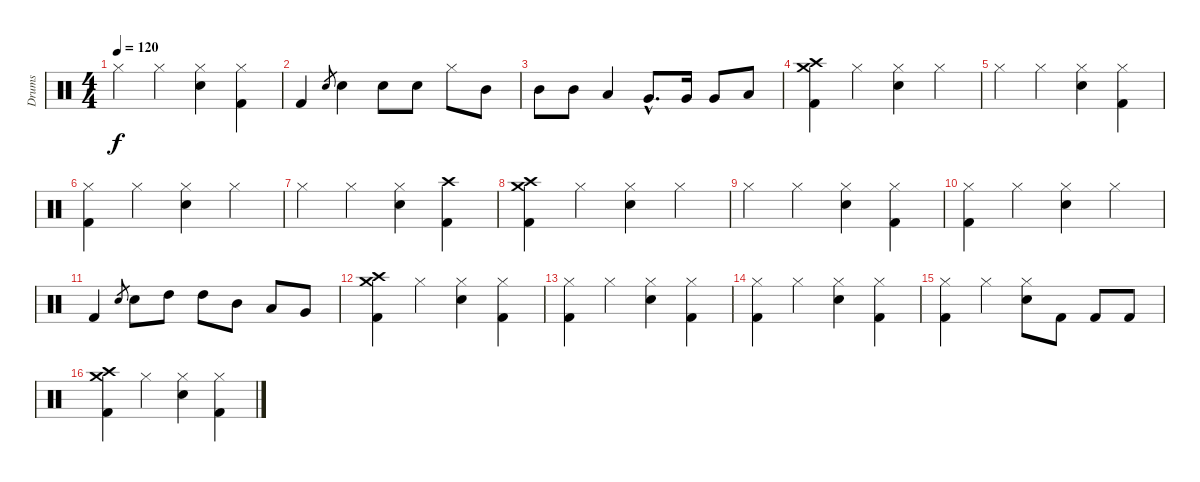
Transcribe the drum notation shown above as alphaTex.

\track ("Drums" "Drums") {instrument percussion}
\staff {score}
\articulation defaults
\ts (4 4)
\tempo 120
\clef neutral
\ks c "Hi-Hat (closed)".4{dy f} "Hi-Hat (closed)".4
("Electric Snare (hit)" "Hi-Hat (closed)").4 ("Kick (hit) 2" "Hi-Hat (closed)").4 |
"Kick (hit) 2".4 "Electric Snare (hit)".8{gr} "Electric Snare (hit)".4 "Electric Snare (hit)".8 "Electric Snare (hit)".8 "Hi-Hat (closed)".8 "Mid Tom (hit)".8 |
"Mid Tom (hit)".8 "Mid Tom (hit)".8 "Low Tom (hit)".4 "Very Low Tom (hit)"{hac}.8{d} "Very Low Tom (hit)".16 "Very Low Tom (hit)".8 "Low Floor Tom (hit)".8 |
("Crash medium (hit)" "Crash high (hit)" "Kick (hit) 2").4 "Hi-Hat (closed)".4 ("Electric Snare (hit)" "Hi-Hat (closed)").4 "Hi-Hat (closed)".4 |
"Hi-Hat (closed)".4 "Hi-Hat (closed)".4 ("Electric Snare (hit)" "Hi-Hat (closed)").4 ("Kick (hit) 2" "Hi-Hat (closed)").4 |
("Kick (hit) 2" "Hi-Hat (closed)").4 "Hi-Hat (closed)".4 ("Electric Snare (hit)" "Hi-Hat (closed)").4 "Hi-Hat (closed)".4 |
"Hi-Hat (closed)".4 "Hi-Hat (closed)".4 ("Electric Snare (hit)" "Hi-Hat (closed)").4 ("Kick (hit) 2" "Crash high (hit)").4 |
("Crash medium (hit)" "Crash high (hit)" "Kick (hit) 2").4 "Hi-Hat (closed)".4 ("Electric Snare (hit)" "Hi-Hat (closed)").4 "Hi-Hat (closed)".4 |
"Hi-Hat (closed)".4 "Hi-Hat (closed)".4 ("Electric Snare (hit)" "Hi-Hat (closed)").4 ("Kick (hit) 2" "Hi-Hat (closed)").4 |
("Kick (hit) 2" "Hi-Hat (closed)").4 "Hi-Hat (closed)".4 ("Electric Snare (hit)" "Hi-Hat (closed)").4 "Hi-Hat (closed)".4 |
"Kick (hit) 2".4 "Electric Snare (hit)".8{gr} "Electric Snare (hit)".8 "High Tom (hit)".8 "High Tom (hit)".8 "Mid Tom (hit)".8 "Low Tom (hit)".8 "Very Low Tom (hit)".8 |
("Crash medium (hit)" "Crash high (hit)" "Kick (hit) 2").4 "Hi-Hat (closed)".4 ("Electric Snare (hit)" "Hi-Hat (closed)").4 ("Kick (hit) 2" "Hi-Hat (closed)").4 |
("Kick (hit) 2" "Hi-Hat (closed)").4 "Hi-Hat (closed)".4 ("Electric Snare (hit)" "Hi-Hat (closed)").4 ("Kick (hit) 2" "Hi-Hat (closed)").4 |
("Kick (hit) 2" "Hi-Hat (closed)").4 "Hi-Hat (closed)".4 ("Electric Snare (hit)" "Hi-Hat (closed)").4 ("Kick (hit) 2" "Hi-Hat (closed)").4 |
("Kick (hit) 2" "Hi-Hat (closed)").4 "Hi-Hat (closed)".4 ("Electric Snare (hit)" "Hi-Hat (closed)").8 "Kick (hit) 2".8 "Kick (hit) 2".8 "Kick (hit) 2".8 |
("Crash medium (hit)" "Crash high (hit)" "Kick (hit) 2").4 "Hi-Hat (closed)".4 ("Electric Snare (hit)" "Hi-Hat (closed)").4 ("Kick (hit) 2" "Hi-Hat (closed)").4
